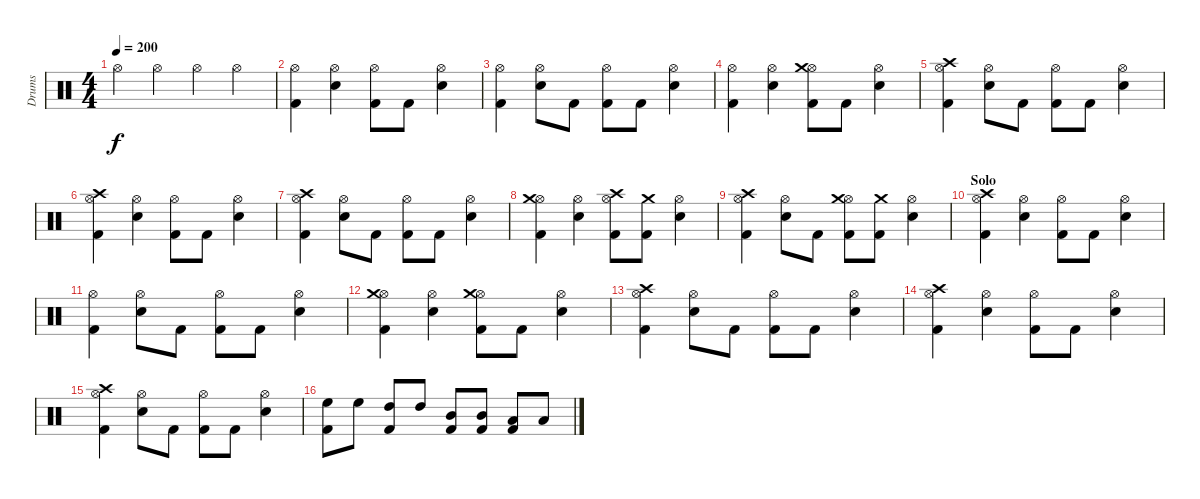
\track ("Drums" "Drums") {instrument percussion}
\staff {score}
\articulation defaults
\ts (4 4)
\tempo 200
\clef neutral
\ks c "Hi-Hat (open)".4{dy f} "Hi-Hat (open)".4 "Hi-Hat (open)".4 "Hi-Hat (open)".4
|
("Hi-Hat (open)" "Kick (hit) 2").4 ("Hi-Hat (open)" "Snare (hit) 2").4 ("Hi-Hat (open)" "Kick (hit) 2").8 "Kick (hit) 2".8 ("Hi-Hat (open)" "Snare (hit) 2").4 |
("Hi-Hat (open)" "Kick (hit) 2").4 ("Hi-Hat (open)" "Snare (hit) 2").8 "Kick (hit) 2".8 ("Hi-Hat (open)" "Kick (hit) 2").8 "Kick (hit) 2".8 ("Hi-Hat (open)" "Snare (hit) 2").4 |
("Hi-Hat (open)" "Kick (hit) 2").4 ("Hi-Hat (open)" "Snare (hit) 2").4 ("Hi-Hat (open)" "Crash medium (hit)" "Kick (hit) 2").8 "Kick (hit) 2".8 ("Hi-Hat (open)" "Snare (hit) 2").4 |
("Hi-Hat (open)" "Crash high (hit)" "Kick (hit) 2").4 ("Hi-Hat (open)" "Snare (hit) 2").8 "Kick (hit) 2".8 ("Hi-Hat (open)" "Kick (hit) 2").8 "Kick (hit) 2".8 ("Hi-Hat (open)" "Snare (hit) 2").4 |
("Hi-Hat (open)" "Crash high (hit)" "Kick (hit) 2").4 ("Hi-Hat (open)" "Snare (hit) 2").4 ("Hi-Hat (open)" "Kick (hit) 2").8 "Kick (hit) 2".8 ("Hi-Hat (open)" "Snare (hit) 2").4 |
("Hi-Hat (open)" "Crash high (hit)" "Kick (hit) 2").4 ("Hi-Hat (open)" "Snare (hit) 2").8 "Kick (hit) 2".8 ("Hi-Hat (open)" "Kick (hit) 2").8 "Kick (hit) 2".8 ("Hi-Hat (open)" "Snare (hit) 2").4 |
("Hi-Hat (open)" "Crash medium (hit)" "Kick (hit) 2").4 ("Hi-Hat (open)" "Snare (hit) 2").4 ("Hi-Hat (open)" "Crash high (hit)" "Kick (hit) 2").8 ("Crash medium (hit)" "Kick (hit) 2").8 ("Hi-Hat (open)" "Snare (hit) 2").4 |
("Hi-Hat (open)" "Crash high (hit)" "Kick (hit) 2").4 ("Hi-Hat (open)" "Snare (hit) 2").8 "Kick (hit) 2".8 ("Hi-Hat (open)" "Crash medium (hit)" "Kick (hit) 2").8 ("Crash medium (hit)" "Kick (hit) 2").8 ("Hi-Hat (open)" "Snare (hit) 2").4 |
\section ("" "Solo ")
("Hi-Hat (open)" "Crash high (hit)" "Kick (hit) 2").4 ("Hi-Hat (open)" "Snare (hit) 2").4 ("Hi-Hat (open)" "Kick (hit) 2").8 "Kick (hit) 2".8 ("Hi-Hat (open)" "Snare (hit) 2").4 |
("Hi-Hat (open)" "Kick (hit) 2").4 ("Hi-Hat (open)" "Snare (hit) 2").8 "Kick (hit) 2".8 ("Hi-Hat (open)" "Kick (hit) 2").8 "Kick (hit) 2".8 ("Hi-Hat (open)" "Snare (hit) 2").4 |
("Hi-Hat (open)" "Crash medium (hit)" "Kick (hit) 2").4 ("Hi-Hat (open)" "Snare (hit) 2").4 ("Hi-Hat (open)" "Crash medium (hit)" "Kick (hit) 2").8 "Kick (hit) 2".8 ("Hi-Hat (open)" "Snare (hit) 2").4 |
("Hi-Hat (open)" "Crash high (hit)" "Kick (hit) 2").4 ("Hi-Hat (open)" "Snare (hit) 2").8 "Kick (hit) 2".8 ("Hi-Hat (open)" "Kick (hit) 2").8 "Kick (hit) 2".8 ("Hi-Hat (open)" "Snare (hit) 2").4 |
("Hi-Hat (open)" "Crash high (hit)" "Kick (hit) 2").4 ("Hi-Hat (open)" "Snare (hit) 2").4 ("Hi-Hat (open)" "Kick (hit) 2").8 "Kick (hit) 2".8 ("Hi-Hat (open)" "Snare (hit) 2").4 |
("Hi-Hat (open)" "Crash high (hit)" "Kick (hit) 2").4 ("Hi-Hat (open)" "Snare (hit) 2").8 "Kick (hit) 2".8 ("Hi-Hat (open)" "Kick (hit) 2").8 "Kick (hit) 2".8 ("Hi-Hat (open)" "Snare (hit) 2").4 |
("High Floor Tom (hit)" "Kick (hit) 2").8 "High Floor Tom (hit)".8 ("High Tom (hit)" "Kick (hit) 2").8 "High Tom (hit)".8 ("Mid Tom (hit)" "Kick (hit) 2").8 ("Mid Tom (hit)" "Kick (hit) 2").8 ("Low Tom (hit)" "Kick (hit) 2").8 "Low Tom (hit)".8
